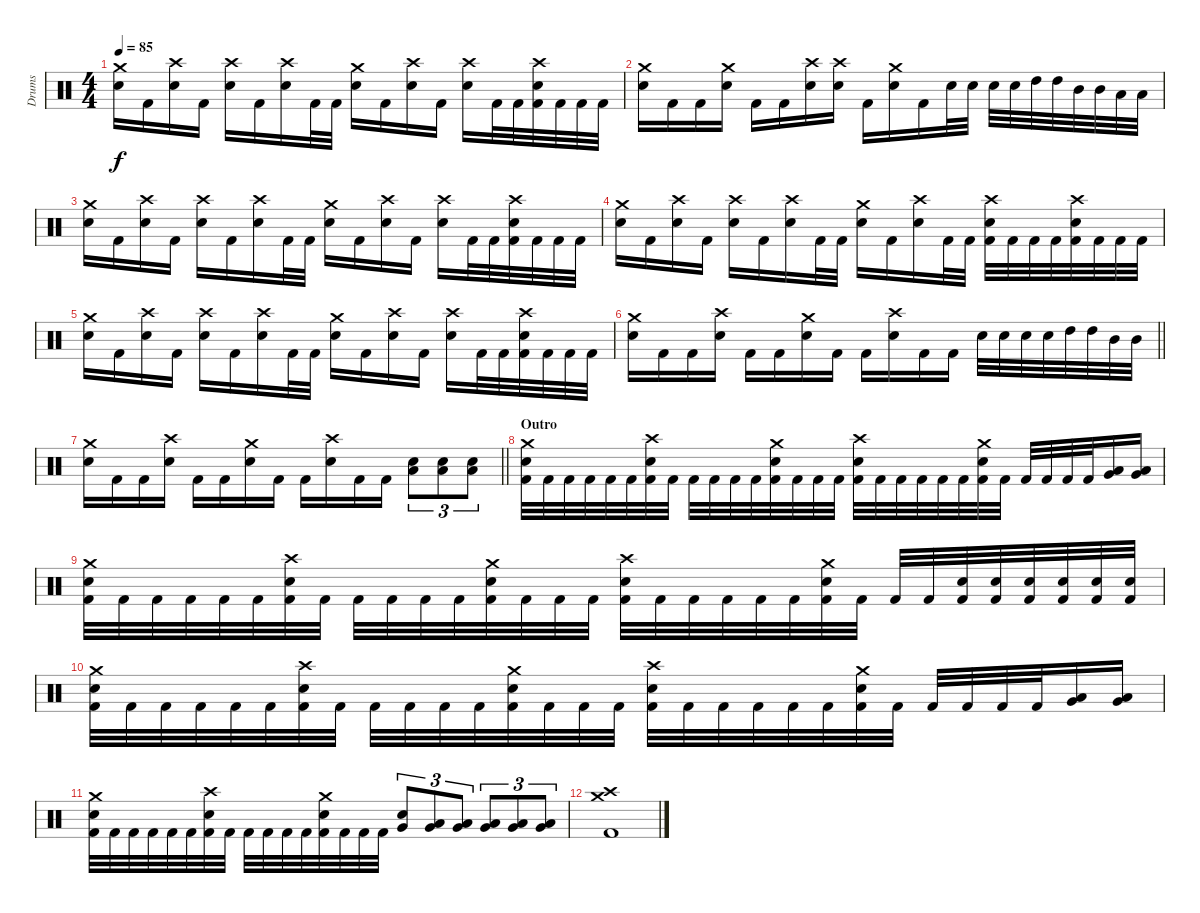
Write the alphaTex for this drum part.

\track ("Drums" "Drums") {instrument percussion}
\staff {score}
\articulation defaults
\ts (4 4)
\tempo 85
\clef neutral
\ks c
("Crash medium (hit)" "Electric Snare (hit)").16{dy f} "Kick (hit) 2".16 ("Crash high (hit)" "Electric Snare (hit)").16 "Kick (hit) 2".16 ("Crash high (hit)" "Electric Snare (hit)").16 "Kick (hit) 2".16 ("Crash high (hit)" "Electric Snare (hit)").16 "Kick (hit) 2".32 "Kick (hit) 2".32 ("Crash medium (hit)" "Electric Snare (hit)").16 "Kick (hit) 2".16 ("Crash high (hit)" "Electric Snare (hit)").16 "Kick (hit) 2".16 ("Crash high (hit)" "Electric Snare (hit)").16 "Kick (hit) 2".32 "Kick (hit) 2".32 ("Crash high (hit)" "Electric Snare (hit)" "Kick (hit) 2").32 "Kick (hit) 2".32 "Kick (hit) 2".32 "Kick (hit) 2".32 |
("Crash medium (hit)" "Electric Snare (hit)").16 "Kick (hit) 2".16 "Kick (hit) 2".16 ("Crash medium (hit)" "Electric Snare (hit)").16 "Kick (hit) 2".16 "Kick (hit) 2".16 ("Crash high (hit)" "Electric Snare (hit)").16 ("Crash high (hit)" "Electric Snare (hit)").16 "Kick (hit) 2".16 ("Crash medium (hit)" "Electric Snare (hit)").16 "Kick (hit) 2".16 "Electric Snare (hit)".32 "Electric Snare (hit)".32 "Electric Snare (hit)".32 "Electric Snare (hit)".32 "High Tom (hit)".32 "High Tom (hit)".32 "Mid Tom (hit)".32 "Mid Tom (hit)".32 "Low Tom (hit)".32 "Low Tom (hit)".32 |
("Crash medium (hit)" "Electric Snare (hit)").16 "Kick (hit) 2".16 ("Crash high (hit)" "Electric Snare (hit)").16 "Kick (hit) 2".16 ("Crash high (hit)" "Electric Snare (hit)").16 "Kick (hit) 2".16 ("Crash high (hit)" "Electric Snare (hit)").16 "Kick (hit) 2".32 "Kick (hit) 2".32 ("Crash medium (hit)" "Electric Snare (hit)").16 "Kick (hit) 2".16 ("Crash high (hit)" "Electric Snare (hit)").16 "Kick (hit) 2".16 ("Crash high (hit)" "Electric Snare (hit)").16 "Kick (hit) 2".32 "Kick (hit) 2".32 ("Crash high (hit)" "Electric Snare (hit)" "Kick (hit) 2").32 "Kick (hit) 2".32 "Kick (hit) 2".32 "Kick (hit) 2".32 |
("Crash medium (hit)" "Electric Snare (hit)").16 "Kick (hit) 2".16 ("Crash high (hit)" "Electric Snare (hit)").16 "Kick (hit) 2".16 ("Crash high (hit)" "Electric Snare (hit)").16 "Kick (hit) 2".16 ("Crash high (hit)" "Electric Snare (hit)").16 "Kick (hit) 2".32 "Kick (hit) 2".32 ("Crash medium (hit)" "Electric Snare (hit)").16 "Kick (hit) 2".16 ("Crash high (hit)" "Electric Snare (hit)").16 "Kick (hit) 2".32 "Kick (hit) 2".32 ("Crash high (hit)" "Electric Snare (hit)" "Kick (hit) 2").32 "Kick (hit) 2".32 "Kick (hit) 2".32 "Kick (hit) 2".32 ("Crash high (hit)" "Electric Snare (hit)" "Kick (hit) 2").32 "Kick (hit) 2".32 "Kick (hit) 2".32 "Kick (hit) 2".32 |
("Crash medium (hit)" "Electric Snare (hit)").16 "Kick (hit) 2".16 ("Crash high (hit)" "Electric Snare (hit)").16 "Kick (hit) 2".16 ("Crash high (hit)" "Electric Snare (hit)").16 "Kick (hit) 2".16 ("Crash high (hit)" "Electric Snare (hit)").16 "Kick (hit) 2".32 "Kick (hit) 2".32 ("Crash medium (hit)" "Electric Snare (hit)").16 "Kick (hit) 2".16 ("Crash high (hit)" "Electric Snare (hit)").16 "Kick (hit) 2".16 ("Crash high (hit)" "Electric Snare (hit)").16 "Kick (hit) 2".32 "Kick (hit) 2".32 ("Crash high (hit)" "Electric Snare (hit)" "Kick (hit) 2").32 "Kick (hit) 2".32 "Kick (hit) 2".32 "Kick (hit) 2".32 |
\barLineRight lightlight
("Crash medium (hit)" "Electric Snare (hit)").16 "Kick (hit) 2".16 "Kick (hit) 2".16 ("Crash high (hit)" "Electric Snare (hit)").16 "Kick (hit) 2".16 "Kick (hit) 2".16 ("Crash medium (hit)" "Electric Snare (hit)").16 "Kick (hit) 2".16 "Kick (hit) 2".16 ("Crash high (hit)" "Electric Snare (hit)").16 "Kick (hit) 2".16 "Kick (hit) 2".16 "Electric Snare (hit)".32 "Electric Snare (hit)".32 "Electric Snare (hit)".32 "Electric Snare (hit)".32 "High Tom (hit)".32 "High Tom (hit)".32 "Mid Tom (hit)".32 "Mid Tom (hit)".32 |
\barLineRight lightlight
("Crash medium (hit)" "Electric Snare (hit)").16 "Kick (hit) 2".16 "Kick (hit) 2".16 ("Crash high (hit)" "Electric Snare (hit)").16 "Kick (hit) 2".16 "Kick (hit) 2".16 ("Crash medium (hit)" "Electric Snare (hit)").16 "Kick (hit) 2".16 "Kick (hit) 2".16 ("Crash high (hit)" "Electric Snare (hit)").16 "Kick (hit) 2".16 "Kick (hit) 2".16 ("Low Floor Tom (hit)" "Electric Snare (hit)").8{tu (3 2)} ("Low Floor Tom (hit)" "Electric Snare (hit)").8{tu (3 2)} ("Low Floor Tom (hit)" "Electric Snare (hit)").8{tu (3 2)} |
\section ("" "Outro")
("Crash medium (hit)" "Electric Snare (hit)" "Kick (hit) 2").32 "Kick (hit) 2".32 "Kick (hit) 2".32 "Kick (hit) 2".32 "Kick (hit) 2".32 "Kick (hit) 2".32 ("Crash high (hit)" "Electric Snare (hit)" "Kick (hit) 2").32 "Kick (hit) 2".32 "Kick (hit) 2".32 "Kick (hit) 2".32 "Kick (hit) 2".32 "Kick (hit) 2".32 ("Crash medium (hit)" "Electric Snare (hit)" "Kick (hit) 2").32 "Kick (hit) 2".32 "Kick (hit) 2".32 "Kick (hit) 2".32 ("Crash high (hit)" "Electric Snare (hit)" "Kick (hit) 2").32 "Kick (hit) 2".32 "Kick (hit) 2".32 "Kick (hit) 2".32 "Kick (hit) 2".32 "Kick (hit) 2".32 ("Crash medium (hit)" "Electric Snare (hit)" "Kick (hit) 2").32 "Kick (hit) 2".32 "Kick (hit) 2".32 "Kick (hit) 2".32 "Kick (hit) 2".32 "Kick (hit) 2".32 ("Very Low Tom (hit)" "Low Floor Tom (hit)").16 ("Very Low Tom (hit)" "Low Floor Tom (hit)").16 |
("Crash medium (hit)" "Electric Snare (hit)" "Kick (hit) 2").32 "Kick (hit) 2".32 "Kick (hit) 2".32 "Kick (hit) 2".32 "Kick (hit) 2".32 "Kick (hit) 2".32 ("Crash high (hit)" "Electric Snare (hit)" "Kick (hit) 2").32 "Kick (hit) 2".32 "Kick (hit) 2".32 "Kick (hit) 2".32 "Kick (hit) 2".32 "Kick (hit) 2".32 ("Crash medium (hit)" "Electric Snare (hit)" "Kick (hit) 2").32 "Kick (hit) 2".32 "Kick (hit) 2".32 "Kick (hit) 2".32 ("Crash high (hit)" "Electric Snare (hit)" "Kick (hit) 2").32 "Kick (hit) 2".32 "Kick (hit) 2".32 "Kick (hit) 2".32 "Kick (hit) 2".32 "Kick (hit) 2".32 ("Crash medium (hit)" "Electric Snare (hit)" "Kick (hit) 2").32 "Kick (hit) 2".32 "Kick (hit) 2".32 "Kick (hit) 2".32 ("Electric Snare (hit)" "Kick (hit) 2").32 ("Electric Snare (hit)" "Kick (hit) 2").32 ("Electric Snare (hit)" "Kick (hit) 2").32 ("Electric Snare (hit)" "Kick (hit) 2").32 ("Electric Snare (hit)" "Kick (hit) 2").32 ("Electric Snare (hit)" "Kick (hit) 2").32 |
("Crash medium (hit)" "Electric Snare (hit)" "Kick (hit) 2").32 "Kick (hit) 2".32 "Kick (hit) 2".32 "Kick (hit) 2".32 "Kick (hit) 2".32 "Kick (hit) 2".32 ("Crash high (hit)" "Electric Snare (hit)" "Kick (hit) 2").32 "Kick (hit) 2".32 "Kick (hit) 2".32 "Kick (hit) 2".32 "Kick (hit) 2".32 "Kick (hit) 2".32 ("Crash medium (hit)" "Electric Snare (hit)" "Kick (hit) 2").32 "Kick (hit) 2".32 "Kick (hit) 2".32 "Kick (hit) 2".32 ("Crash high (hit)" "Electric Snare (hit)" "Kick (hit) 2").32 "Kick (hit) 2".32 "Kick (hit) 2".32 "Kick (hit) 2".32 "Kick (hit) 2".32 "Kick (hit) 2".32 ("Crash medium (hit)" "Electric Snare (hit)" "Kick (hit) 2").32 "Kick (hit) 2".32 "Kick (hit) 2".32 "Kick (hit) 2".32 "Kick (hit) 2".32 "Kick (hit) 2".32 ("Very Low Tom (hit)" "Low Floor Tom (hit)").16 ("Very Low Tom (hit)" "Low Floor Tom (hit)").16 |
("Crash medium (hit)" "Electric Snare (hit)" "Kick (hit) 2").32 "Kick (hit) 2".32 "Kick (hit) 2".32 "Kick (hit) 2".32 "Kick (hit) 2".32 "Kick (hit) 2".32 ("Crash high (hit)" "Electric Snare (hit)" "Kick (hit) 2").32 "Kick (hit) 2".32 "Kick (hit) 2".32 "Kick (hit) 2".32 "Kick (hit) 2".32 "Kick (hit) 2".32 ("Crash medium (hit)" "Electric Snare (hit)" "Kick (hit) 2").32 "Kick (hit) 2".32 "Kick (hit) 2".32 "Kick (hit) 2".32 ("Very Low Tom (hit)" "Electric Snare (hit)").8{tu (3 2)} ("Very Low Tom (hit)" "Low Floor Tom (hit)").8{tu (3 2)} ("Very Low Tom (hit)" "Low Floor Tom (hit)").8{tu (3 2)} ("Very Low Tom (hit)" "Low Floor Tom (hit)").8{tu (3 2)} ("Very Low Tom (hit)" "Low Floor Tom (hit)").8{tu (3 2)} ("Very Low Tom (hit)" "Low Floor Tom (hit)").8{tu (3 2)} |
("Crash medium (hit)" "Crash high (hit)" "Kick (hit) 2").1
